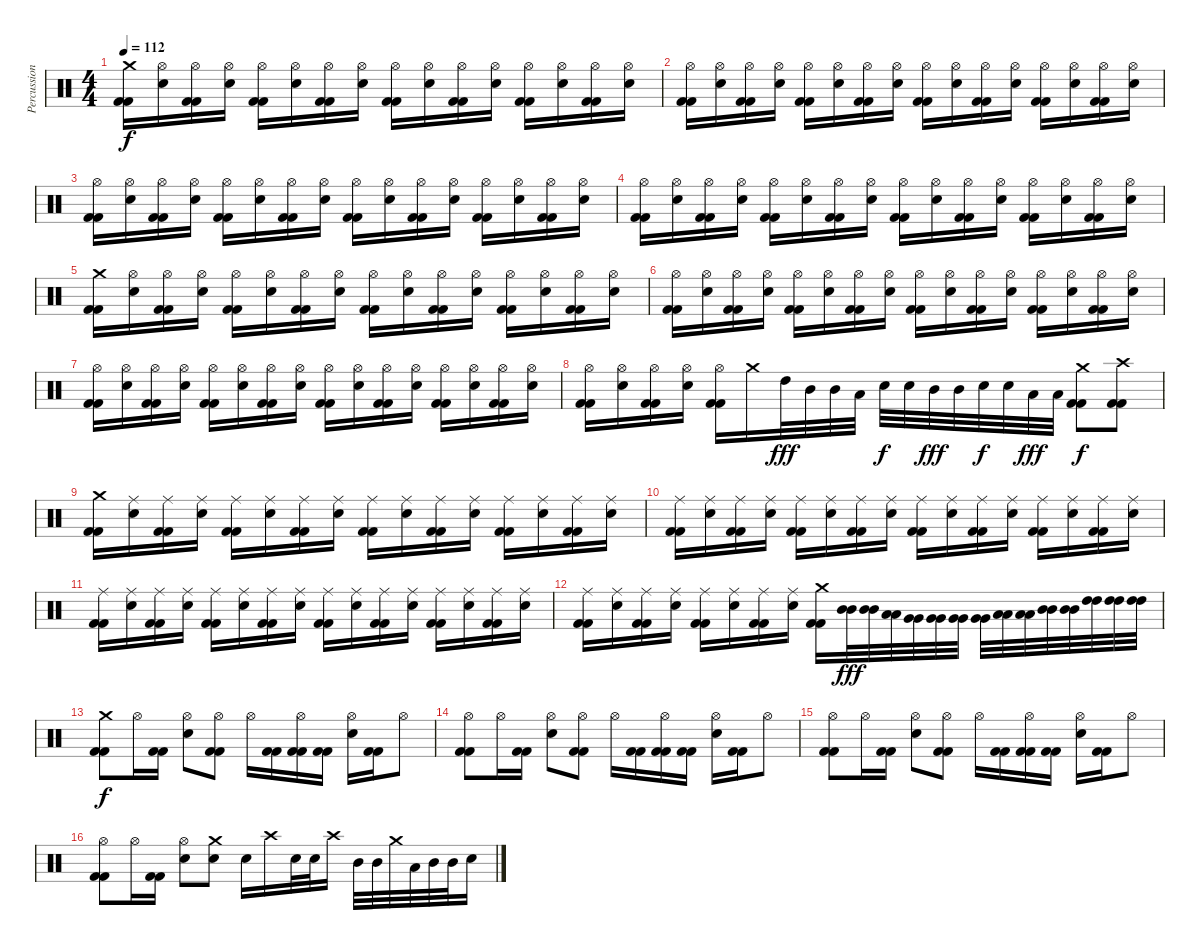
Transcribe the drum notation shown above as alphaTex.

\track ("Percussion" "Percussion") {instrument percussion}
\staff {score}
\articulation defaults
\ts (4 4)
\tempo 112
\clef neutral
\ks c
("Kick (hit) 2" "Kick (hit) 2" "Crash medium (hit)").16{dy f} ("Hi-Hat (open)" "Electric Snare (hit)").16 ("Hi-Hat (open)" "Kick (hit) 2" "Kick (hit) 2").16 ("Hi-Hat (open)" "Electric Snare (hit)").16 ("Hi-Hat (open)" "Kick (hit) 2" "Kick (hit) 2").16 ("Hi-Hat (open)" "Electric Snare (hit)").16 ("Hi-Hat (open)" "Kick (hit) 2" "Kick (hit) 2").16 ("Hi-Hat (open)" "Electric Snare (hit)").16 ("Hi-Hat (open)" "Kick (hit) 2" "Kick (hit) 2").16 ("Hi-Hat (open)" "Electric Snare (hit)").16 ("Hi-Hat (open)" "Kick (hit) 2" "Kick (hit) 2").16 ("Hi-Hat (open)" "Electric Snare (hit)").16 ("Hi-Hat (open)" "Kick (hit) 2" "Kick (hit) 2").16 ("Hi-Hat (open)" "Electric Snare (hit)").16 ("Hi-Hat (open)" "Kick (hit) 2" "Kick (hit) 2").16 ("Hi-Hat (open)" "Electric Snare (hit)").16 |
("Kick (hit) 2" "Kick (hit) 2" "Hi-Hat (open)").16 ("Hi-Hat (open)" "Electric Snare (hit)").16 ("Hi-Hat (open)" "Kick (hit) 2" "Kick (hit) 2").16 ("Hi-Hat (open)" "Electric Snare (hit)").16 ("Hi-Hat (open)" "Kick (hit) 2" "Kick (hit) 2").16 ("Hi-Hat (open)" "Electric Snare (hit)").16 ("Hi-Hat (open)" "Kick (hit) 2" "Kick (hit) 2").16 ("Hi-Hat (open)" "Electric Snare (hit)").16 ("Hi-Hat (open)" "Kick (hit) 2" "Kick (hit) 2").16 ("Hi-Hat (open)" "Electric Snare (hit)").16 ("Hi-Hat (open)" "Kick (hit) 2" "Kick (hit) 2").16 ("Hi-Hat (open)" "Electric Snare (hit)").16 ("Hi-Hat (open)" "Kick (hit) 2" "Kick (hit) 2").16 ("Hi-Hat (open)" "Electric Snare (hit)").16 ("Hi-Hat (open)" "Kick (hit) 2" "Kick (hit) 2").16 ("Hi-Hat (open)" "Electric Snare (hit)").16 |
("Kick (hit) 2" "Kick (hit) 2" "Hi-Hat (open)").16 ("Hi-Hat (open)" "Electric Snare (hit)").16 ("Hi-Hat (open)" "Kick (hit) 2" "Kick (hit) 2").16 ("Hi-Hat (open)" "Electric Snare (hit)").16 ("Hi-Hat (open)" "Kick (hit) 2" "Kick (hit) 2").16 ("Hi-Hat (open)" "Electric Snare (hit)").16 ("Hi-Hat (open)" "Kick (hit) 2" "Kick (hit) 2").16 ("Hi-Hat (open)" "Electric Snare (hit)").16 ("Hi-Hat (open)" "Kick (hit) 2" "Kick (hit) 2").16 ("Hi-Hat (open)" "Electric Snare (hit)").16 ("Hi-Hat (open)" "Kick (hit) 2" "Kick (hit) 2").16 ("Hi-Hat (open)" "Electric Snare (hit)").16 ("Hi-Hat (open)" "Kick (hit) 2" "Kick (hit) 2").16 ("Hi-Hat (open)" "Electric Snare (hit)").16 ("Hi-Hat (open)" "Kick (hit) 2" "Kick (hit) 2").16 ("Hi-Hat (open)" "Electric Snare (hit)").16 |
("Kick (hit) 2" "Kick (hit) 2" "Hi-Hat (open)").16 ("Hi-Hat (open)" "Electric Snare (hit)").16 ("Hi-Hat (open)" "Kick (hit) 2" "Kick (hit) 2").16 ("Hi-Hat (open)" "Electric Snare (hit)").16 ("Hi-Hat (open)" "Kick (hit) 2" "Kick (hit) 2").16 ("Hi-Hat (open)" "Electric Snare (hit)").16 ("Hi-Hat (open)" "Kick (hit) 2" "Kick (hit) 2").16 ("Hi-Hat (open)" "Electric Snare (hit)").16 ("Hi-Hat (open)" "Kick (hit) 2" "Kick (hit) 2").16 ("Hi-Hat (open)" "Electric Snare (hit)").16 ("Hi-Hat (open)" "Kick (hit) 2" "Kick (hit) 2").16 ("Hi-Hat (open)" "Electric Snare (hit)").16 ("Hi-Hat (open)" "Kick (hit) 2" "Kick (hit) 2").16 ("Hi-Hat (open)" "Electric Snare (hit)").16 ("Hi-Hat (open)" "Kick (hit) 2" "Kick (hit) 2").16 ("Hi-Hat (open)" "Electric Snare (hit)").16 |
("Kick (hit) 2" "Kick (hit) 2" "Crash medium (hit)").16 ("Hi-Hat (open)" "Electric Snare (hit)").16 ("Hi-Hat (open)" "Kick (hit) 2" "Kick (hit) 2").16 ("Hi-Hat (open)" "Electric Snare (hit)").16 ("Hi-Hat (open)" "Kick (hit) 2" "Kick (hit) 2").16 ("Hi-Hat (open)" "Electric Snare (hit)").16 ("Hi-Hat (open)" "Kick (hit) 2" "Kick (hit) 2").16 ("Hi-Hat (open)" "Electric Snare (hit)").16 ("Hi-Hat (open)" "Kick (hit) 2" "Kick (hit) 2").16 ("Hi-Hat (open)" "Electric Snare (hit)").16 ("Hi-Hat (open)" "Kick (hit) 2" "Kick (hit) 2").16 ("Hi-Hat (open)" "Electric Snare (hit)").16 ("Hi-Hat (open)" "Kick (hit) 2" "Kick (hit) 2").16 ("Hi-Hat (open)" "Electric Snare (hit)").16 ("Hi-Hat (open)" "Kick (hit) 2" "Kick (hit) 2").16 ("Hi-Hat (open)" "Electric Snare (hit)").16 |
("Kick (hit) 2" "Kick (hit) 2" "Hi-Hat (open)").16 ("Hi-Hat (open)" "Electric Snare (hit)").16 ("Hi-Hat (open)" "Kick (hit) 2" "Kick (hit) 2").16 ("Hi-Hat (open)" "Electric Snare (hit)").16 ("Hi-Hat (open)" "Kick (hit) 2" "Kick (hit) 2").16 ("Hi-Hat (open)" "Electric Snare (hit)").16 ("Hi-Hat (open)" "Kick (hit) 2" "Kick (hit) 2").16 ("Hi-Hat (open)" "Electric Snare (hit)").16 ("Hi-Hat (open)" "Kick (hit) 2" "Kick (hit) 2").16 ("Hi-Hat (open)" "Electric Snare (hit)").16 ("Hi-Hat (open)" "Kick (hit) 2" "Kick (hit) 2").16 ("Hi-Hat (open)" "Electric Snare (hit)").16 ("Hi-Hat (open)" "Kick (hit) 2" "Kick (hit) 2").16 ("Hi-Hat (open)" "Electric Snare (hit)").16 ("Hi-Hat (open)" "Kick (hit) 2" "Kick (hit) 2").16 ("Hi-Hat (open)" "Electric Snare (hit)").16 |
("Kick (hit) 2" "Kick (hit) 2" "Hi-Hat (open)").16 ("Hi-Hat (open)" "Electric Snare (hit)").16 ("Hi-Hat (open)" "Kick (hit) 2" "Kick (hit) 2").16 ("Hi-Hat (open)" "Electric Snare (hit)").16 ("Hi-Hat (open)" "Kick (hit) 2" "Kick (hit) 2").16 ("Hi-Hat (open)" "Electric Snare (hit)").16 ("Hi-Hat (open)" "Kick (hit) 2" "Kick (hit) 2").16 ("Hi-Hat (open)" "Electric Snare (hit)").16 ("Hi-Hat (open)" "Kick (hit) 2" "Kick (hit) 2").16 ("Hi-Hat (open)" "Electric Snare (hit)").16 ("Hi-Hat (open)" "Kick (hit) 2" "Kick (hit) 2").16 ("Hi-Hat (open)" "Electric Snare (hit)").16 ("Hi-Hat (open)" "Kick (hit) 2" "Kick (hit) 2").16 ("Hi-Hat (open)" "Electric Snare (hit)").16 ("Hi-Hat (open)" "Kick (hit) 2" "Kick (hit) 2").16 ("Hi-Hat (open)" "Electric Snare (hit)").16 |
("Kick (hit) 2" "Kick (hit) 2" "Hi-Hat (open)").16 ("Hi-Hat (open)" "Electric Snare (hit)").16 ("Hi-Hat (open)" "Kick (hit) 2" "Kick (hit) 2").16 ("Hi-Hat (open)" "Electric Snare (hit)").16 ("Hi-Hat (open)" "Kick (hit) 2" "Kick (hit) 2").16 "Crash medium (hit)".16 "High Tom (hit)".32{dy fff} "Mid Tom (hit)".32 "Mid Tom (hit)".32 "Low Tom (hit)".32 "Electric Snare (hit)".32{dy f} "Electric Snare (hit)".32 "Mid Tom (hit)".32{dy fff} "Mid Tom (hit)".32 "Electric Snare (hit)".32{dy f} "Electric Snare (hit)".32 "Low Tom (hit)".32{dy fff} "Low Tom (hit)".32 ("Kick (hit) 2" "Kick (hit) 2" "Crash medium (hit)").8{dy f} ("Kick (hit) 2" "Kick (hit) 2" "Crash high (hit)").8 |
("Kick (hit) 2" "Kick (hit) 2" "Crash medium (hit)").16 ("Ride (middle)" "Electric Snare (hit)").16 ("Ride (middle)" "Kick (hit) 2" "Kick (hit) 2").16 ("Ride (middle)" "Electric Snare (hit)").16 ("Ride (middle)" "Kick (hit) 2" "Kick (hit) 2").16 ("Ride (middle)" "Electric Snare (hit)").16 ("Ride (middle)" "Kick (hit) 2" "Kick (hit) 2").16 ("Ride (middle)" "Electric Snare (hit)").16 ("Ride (middle)" "Kick (hit) 2" "Kick (hit) 2").16 ("Ride (middle)" "Electric Snare (hit)").16 ("Ride (middle)" "Kick (hit) 2" "Kick (hit) 2").16 ("Ride (middle)" "Electric Snare (hit)").16 ("Ride (middle)" "Kick (hit) 2" "Kick (hit) 2").16 ("Ride (middle)" "Electric Snare (hit)").16 ("Ride (middle)" "Kick (hit) 2" "Kick (hit) 2").16 ("Ride (middle)" "Electric Snare (hit)").16 |
("Kick (hit) 2" "Kick (hit) 2" "Ride (middle)").16 ("Ride (middle)" "Electric Snare (hit)").16 ("Ride (middle)" "Kick (hit) 2" "Kick (hit) 2").16 ("Ride (middle)" "Electric Snare (hit)").16 ("Ride (middle)" "Kick (hit) 2" "Kick (hit) 2").16 ("Ride (middle)" "Electric Snare (hit)").16 ("Ride (middle)" "Kick (hit) 2" "Kick (hit) 2").16 ("Ride (middle)" "Electric Snare (hit)").16 ("Ride (middle)" "Kick (hit) 2" "Kick (hit) 2").16 ("Ride (middle)" "Electric Snare (hit)").16 ("Ride (middle)" "Kick (hit) 2" "Kick (hit) 2").16 ("Ride (middle)" "Electric Snare (hit)").16 ("Ride (middle)" "Kick (hit) 2" "Kick (hit) 2").16 ("Ride (middle)" "Electric Snare (hit)").16 ("Ride (middle)" "Kick (hit) 2" "Kick (hit) 2").16 ("Ride (middle)" "Electric Snare (hit)").16 |
("Kick (hit) 2" "Kick (hit) 2" "Ride (middle)").16 ("Ride (middle)" "Electric Snare (hit)").16 ("Ride (middle)" "Kick (hit) 2" "Kick (hit) 2").16 ("Ride (middle)" "Electric Snare (hit)").16 ("Ride (middle)" "Kick (hit) 2" "Kick (hit) 2").16 ("Ride (middle)" "Electric Snare (hit)").16 ("Ride (middle)" "Kick (hit) 2" "Kick (hit) 2").16 ("Ride (middle)" "Electric Snare (hit)").16 ("Ride (middle)" "Kick (hit) 2" "Kick (hit) 2").16 ("Ride (middle)" "Electric Snare (hit)").16 ("Ride (middle)" "Kick (hit) 2" "Kick (hit) 2").16 ("Ride (middle)" "Electric Snare (hit)").16 ("Ride (middle)" "Kick (hit) 2" "Kick (hit) 2").16 ("Ride (middle)" "Electric Snare (hit)").16 ("Ride (middle)" "Kick (hit) 2" "Kick (hit) 2").16 ("Ride (middle)" "Electric Snare (hit)").16 |
("Kick (hit) 2" "Kick (hit) 2" "Ride (middle)").16 ("Ride (middle)" "Electric Snare (hit)").16 ("Ride (middle)" "Kick (hit) 2" "Kick (hit) 2").16 ("Ride (middle)" "Electric Snare (hit)").16 ("Ride (middle)" "Kick (hit) 2" "Kick (hit) 2").16 ("Ride (middle)" "Electric Snare (hit)").16 ("Ride (middle)" "Kick (hit) 2" "Kick (hit) 2").16 ("Ride (middle)" "Electric Snare (hit)").16 ("Crash medium (hit)" "Kick (hit) 2" "Kick (hit) 2").16 ("Mid Tom (hit)" "Mid Tom (hit)").32{dy fff} ("Mid Tom (hit)" "Mid Tom (hit)").32 ("Low Tom (hit)" "Low Tom (hit)").32 ("Very Low Tom (hit)" "Very Low Tom (hit)").32 ("Very Low Tom (hit)" "Very Low Tom (hit)").32 ("Very Low Tom (hit)" "Very Low Tom (hit)").32 ("Very Low Tom (hit)" "Very Low Tom (hit)").32 ("Low Tom (hit)" "Low Tom (hit)").32 ("Low Tom (hit)" "Low Tom (hit)").32 ("Mid Tom (hit)" "Mid Tom (hit)").32 ("Mid Tom (hit)" "Mid Tom (hit)").32 ("High Tom (hit)" "High Tom (hit)").32 ("High Tom (hit)" "High Tom (hit)").32 ("High Tom (hit)" "High Tom (hit)").32 |
("Kick (hit) 2" "Kick (hit) 2" "Crash medium (hit)").8{dy f} "Hi-Hat (open)".16 ("Kick (hit) 2" "Kick (hit) 2").16 ("Hi-Hat (open)" "Electric Snare (hit)").8 ("Kick (hit) 2" "Kick (hit) 2" "Hi-Hat (open)").8 "Hi-Hat (open)".16 ("Kick (hit) 2" "Kick (hit) 2").16 ("Kick (hit) 2" "Kick (hit) 2" "Hi-Hat (open)").16 ("Kick (hit) 2" "Kick (hit) 2").16 ("Hi-Hat (open)" "Electric Snare (hit)").16 ("Kick (hit) 2" "Kick (hit) 2").16 "Hi-Hat (open)".8 |
("Kick (hit) 2" "Kick (hit) 2" "Hi-Hat (open)").8 "Hi-Hat (open)".16 ("Kick (hit) 2" "Kick (hit) 2").16 ("Hi-Hat (open)" "Electric Snare (hit)").8 ("Kick (hit) 2" "Kick (hit) 2" "Hi-Hat (open)").8 "Hi-Hat (open)".16 ("Kick (hit) 2" "Kick (hit) 2").16 ("Kick (hit) 2" "Kick (hit) 2" "Hi-Hat (open)").16 ("Kick (hit) 2" "Kick (hit) 2").16 ("Hi-Hat (open)" "Electric Snare (hit)").16 ("Kick (hit) 2" "Kick (hit) 2").16 "Hi-Hat (open)".8 |
("Kick (hit) 2" "Kick (hit) 2" "Hi-Hat (open)").8 "Hi-Hat (open)".16 ("Kick (hit) 2" "Kick (hit) 2").16 ("Hi-Hat (open)" "Electric Snare (hit)").8 ("Kick (hit) 2" "Kick (hit) 2" "Hi-Hat (open)").8 "Hi-Hat (open)".16 ("Kick (hit) 2" "Kick (hit) 2").16 ("Kick (hit) 2" "Kick (hit) 2" "Hi-Hat (open)").16 ("Kick (hit) 2" "Kick (hit) 2").16 ("Hi-Hat (open)" "Electric Snare (hit)").16 ("Kick (hit) 2" "Kick (hit) 2").16 "Hi-Hat (open)".8 |
("Kick (hit) 2" "Kick (hit) 2" "Hi-Hat (open)").8 "Hi-Hat (open)".16 ("Kick (hit) 2" "Kick (hit) 2").16 ("Hi-Hat (open)" "Electric Snare (hit)").8 ("Electric Snare (hit)" "Crash medium (hit)").8 "Electric Snare (hit)".16 "Crash high (hit)".16 "Electric Snare (hit)".32 "Electric Snare (hit)".32 "Crash high (hit)".16 "Mid Tom (hit)".32 "Mid Tom (hit)".32 "Crash medium (hit)".32 "Low Tom (hit)".32 "Mid Tom (hit)".32 "Mid Tom (hit)".32 "Electric Snare (hit)".16
